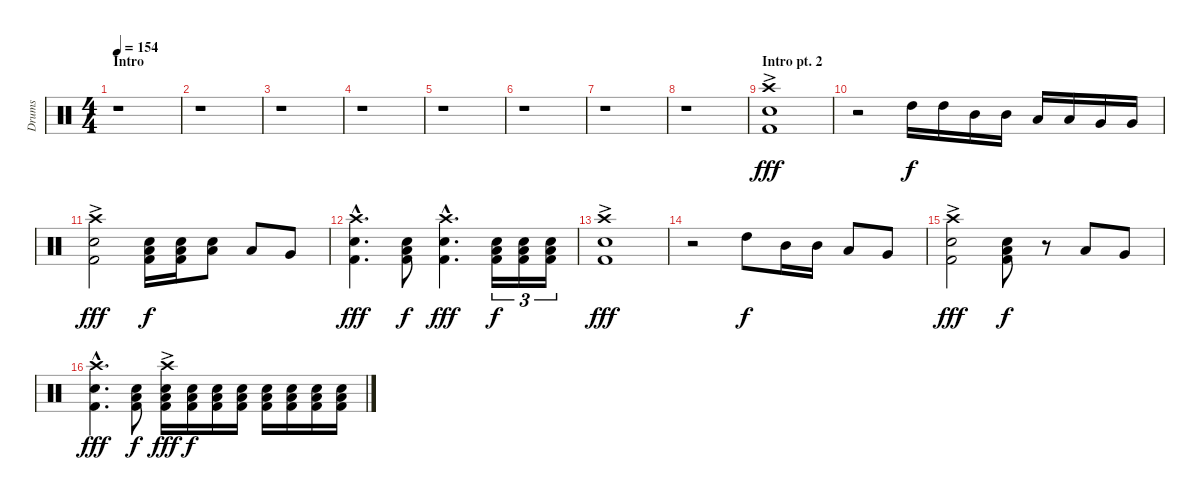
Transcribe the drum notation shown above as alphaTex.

\track ("Drums" "Drums") {instrument percussion}
\staff {score}
\articulation defaults
\ts (4 4)
\section ("" "Intro")
\tempo 154
\clef neutral
\ks c
r.1{dy fff} |
r.1 |
r.1 |
r.1 |
r.1 |
r.1 |
r.1 |
r.1 |
\section ("" "Intro pt. 2")
("Crash high (hit)"{ac} "Electric Snare (hit)" "Kick (hit) 2").1 |
r.2 "High Tom (hit)".16{dy f} "High Tom (hit)".16 "Mid Tom (hit)".16 "Mid Tom (hit)".16 "Low Tom (hit)".16 "Low Tom (hit)".16 "Very Low Tom (hit)".16 "Very Low Tom (hit)".16 |
("Crash high (hit)"{ac} "Electric Snare (hit)" "Kick (hit) 2").2{dy fff} ("Low Tom (hit)" "Electric Snare (hit)" "Kick (hit) 2").16{dy f} ("Low Tom (hit)" "Electric Snare (hit)" "Kick (hit) 2").16 ("Low Tom (hit)" "Electric Snare (hit)").8 "Low Tom (hit)".8 "Very Low Tom (hit)".8 |
("Crash high (hit)"{hac} "Electric Snare (hit)"{hac} "Kick (hit) 2"{hac}).4{d dy fff} ("Low Tom (hit)" "Electric Snare (hit)" "Kick (hit) 2").8{dy f} ("Crash high (hit)"{hac} "Electric Snare (hit)"{hac} "Kick (hit) 2"{hac}).4{d dy fff} ("Low Tom (hit)" "Electric Snare (hit)" "Kick (hit) 2").16{tu (3 2) dy f} ("Low Tom (hit)" "Electric Snare (hit)" "Kick (hit) 2").16{tu (3 2)} ("Low Tom (hit)" "Electric Snare (hit)" "Kick (hit) 2").16{tu (3 2)} |
("Crash high (hit)"{ac} "Electric Snare (hit)" "Kick (hit) 2").1{dy fff} |
r.2 "High Tom (hit)".8{dy f} "Mid Tom (hit)".16 "Mid Tom (hit)".16 "Low Tom (hit)".8 "Very Low Tom (hit)".8 |
("Crash high (hit)"{ac} "Electric Snare (hit)" "Kick (hit) 2").2{dy fff} ("Low Tom (hit)" "Electric Snare (hit)" "Kick (hit) 2").8{dy f} r.8 "Low Tom (hit)".8 "Very Low Tom (hit)".8 |
("Crash high (hit)"{hac} "Electric Snare (hit)"{hac} "Kick (hit) 2"{hac}).4{d dy fff} ("Low Tom (hit)" "Electric Snare (hit)" "Kick (hit) 2").8{dy f} ("Crash high (hit)"{ac} "Low Tom (hit)" "Electric Snare (hit)" "Kick (hit) 2").16{dy fff} ("Low Tom (hit)" "Electric Snare (hit)" "Kick (hit) 2").16{dy f} ("Low Tom (hit)" "Electric Snare (hit)" "Kick (hit) 2").16 ("Low Tom (hit)" "Electric Snare (hit)" "Kick (hit) 2").16 ("Low Tom (hit)" "Electric Snare (hit)" "Kick (hit) 2").16 ("Low Tom (hit)" "Electric Snare (hit)" "Kick (hit) 2").16 ("Low Tom (hit)" "Electric Snare (hit)" "Kick (hit) 2").16 ("Low Tom (hit)" "Electric Snare (hit)" "Kick (hit) 2").16
